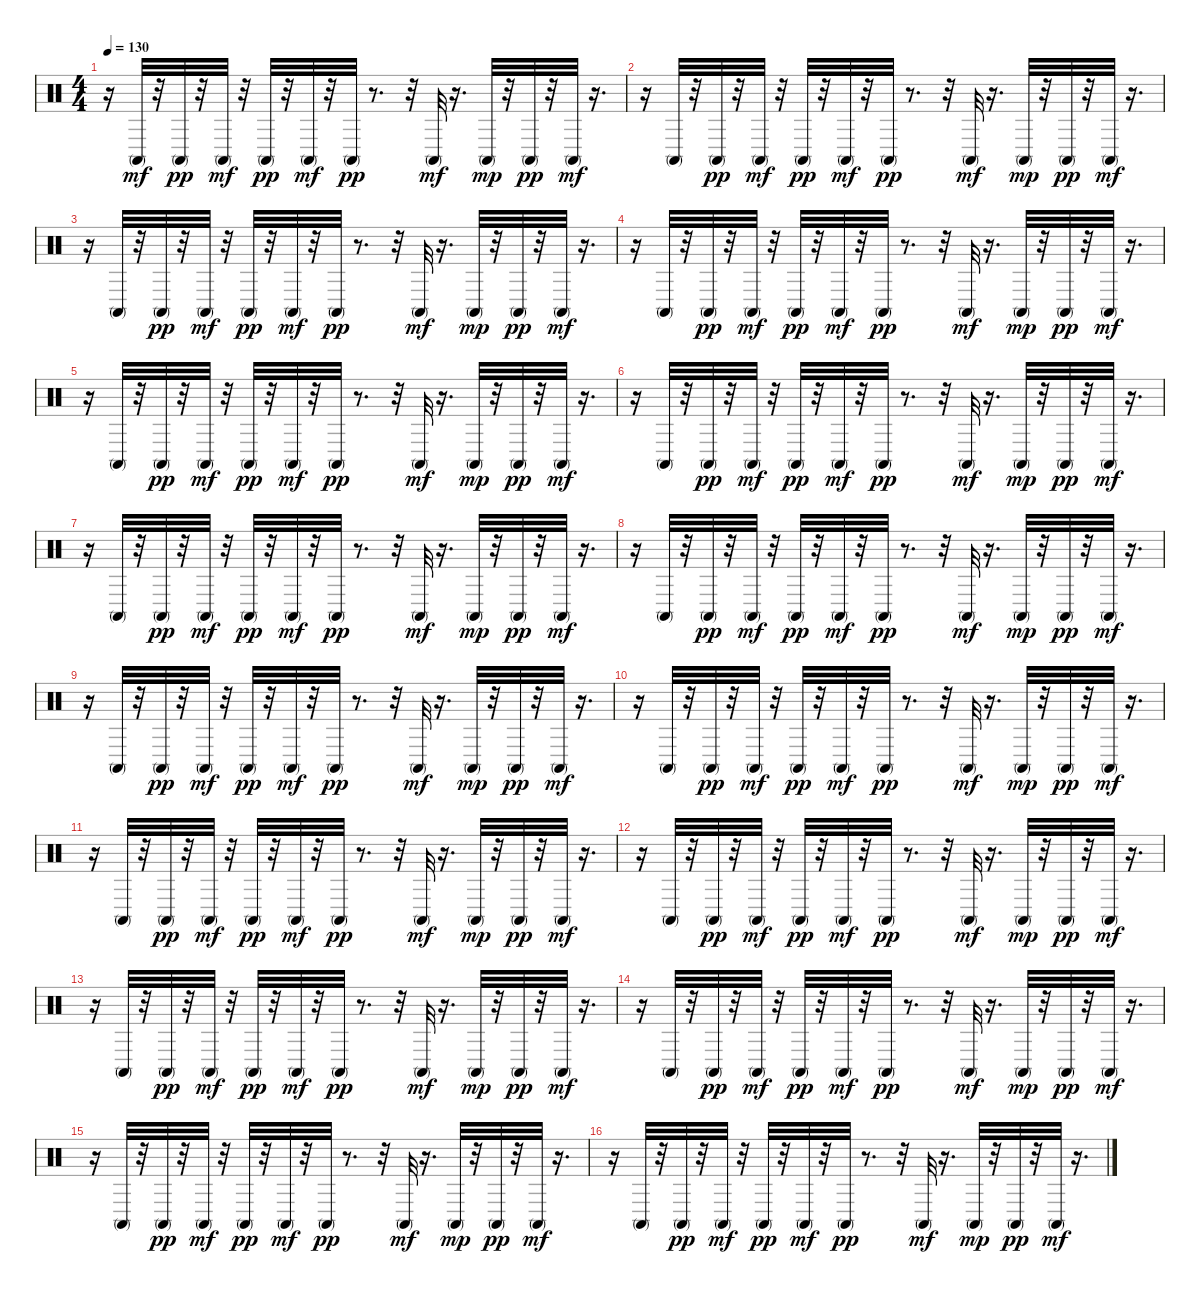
\track "" {instrument percussion}
\staff {score}
\articulation defaults
\ts (4 4)
\tempo 130
\clef neutral
\ks c
r.16{dy mf} "Conga high (mute)".32 r.32 "Conga high (mute)".32{dy pp} r.32 "Conga high (mute)".32{dy mf} r.32 "Conga high (mute)".32{dy pp} r.32 "Conga high (mute)".32{dy mf} r.32 "Conga high (mute)".32{dy pp} r.8{d} r.32 "Conga high (mute)".32{dy mf} r.16{d} "Conga high (mute)".32{dy mp} r.32 "Conga high (mute)".32{dy pp} r.32 "Conga high (mute)".32{dy mf} r.16{d} |
r.16 "Conga high (mute)".32 r.32 "Conga high (mute)".32{dy pp} r.32 "Conga high (mute)".32{dy mf} r.32 "Conga high (mute)".32{dy pp} r.32 "Conga high (mute)".32{dy mf} r.32 "Conga high (mute)".32{dy pp} r.8{d} r.32 "Conga high (mute)".32{dy mf} r.16{d} "Conga high (mute)".32{dy mp} r.32 "Conga high (mute)".32{dy pp} r.32 "Conga high (mute)".32{dy mf} r.16{d} |
r.16 "Conga high (mute)".32 r.32 "Conga high (mute)".32{dy pp} r.32 "Conga high (mute)".32{dy mf} r.32 "Conga high (mute)".32{dy pp} r.32 "Conga high (mute)".32{dy mf} r.32 "Conga high (mute)".32{dy pp} r.8{d} r.32 "Conga high (mute)".32{dy mf} r.16{d} "Conga high (mute)".32{dy mp} r.32 "Conga high (mute)".32{dy pp} r.32 "Conga high (mute)".32{dy mf} r.16{d} |
r.16 "Conga high (mute)".32 r.32 "Conga high (mute)".32{dy pp} r.32 "Conga high (mute)".32{dy mf} r.32 "Conga high (mute)".32{dy pp} r.32 "Conga high (mute)".32{dy mf} r.32 "Conga high (mute)".32{dy pp} r.8{d} r.32 "Conga high (mute)".32{dy mf} r.16{d} "Conga high (mute)".32{dy mp} r.32 "Conga high (mute)".32{dy pp} r.32 "Conga high (mute)".32{dy mf} r.16{d} |
r.16 "Conga high (mute)".32 r.32 "Conga high (mute)".32{dy pp} r.32 "Conga high (mute)".32{dy mf} r.32 "Conga high (mute)".32{dy pp} r.32 "Conga high (mute)".32{dy mf} r.32 "Conga high (mute)".32{dy pp} r.8{d} r.32 "Conga high (mute)".32{dy mf} r.16{d} "Conga high (mute)".32{dy mp} r.32 "Conga high (mute)".32{dy pp} r.32 "Conga high (mute)".32{dy mf} r.16{d} |
r.16 "Conga high (mute)".32 r.32 "Conga high (mute)".32{dy pp} r.32 "Conga high (mute)".32{dy mf} r.32 "Conga high (mute)".32{dy pp} r.32 "Conga high (mute)".32{dy mf} r.32 "Conga high (mute)".32{dy pp} r.8{d} r.32 "Conga high (mute)".32{dy mf} r.16{d} "Conga high (mute)".32{dy mp} r.32 "Conga high (mute)".32{dy pp} r.32 "Conga high (mute)".32{dy mf} r.16{d} |
r.16 "Conga high (mute)".32 r.32 "Conga high (mute)".32{dy pp} r.32 "Conga high (mute)".32{dy mf} r.32 "Conga high (mute)".32{dy pp} r.32 "Conga high (mute)".32{dy mf} r.32 "Conga high (mute)".32{dy pp} r.8{d} r.32 "Conga high (mute)".32{dy mf} r.16{d} "Conga high (mute)".32{dy mp} r.32 "Conga high (mute)".32{dy pp} r.32 "Conga high (mute)".32{dy mf} r.16{d} |
r.16 "Conga high (mute)".32 r.32 "Conga high (mute)".32{dy pp} r.32 "Conga high (mute)".32{dy mf} r.32 "Conga high (mute)".32{dy pp} r.32 "Conga high (mute)".32{dy mf} r.32 "Conga high (mute)".32{dy pp} r.8{d} r.32 "Conga high (mute)".32{dy mf} r.16{d} "Conga high (mute)".32{dy mp} r.32 "Conga high (mute)".32{dy pp} r.32 "Conga high (mute)".32{dy mf} r.16{d} |
r.16 "Conga high (mute)".32 r.32 "Conga high (mute)".32{dy pp} r.32 "Conga high (mute)".32{dy mf} r.32 "Conga high (mute)".32{dy pp} r.32 "Conga high (mute)".32{dy mf} r.32 "Conga high (mute)".32{dy pp} r.8{d} r.32 "Conga high (mute)".32{dy mf} r.16{d} "Conga high (mute)".32{dy mp} r.32 "Conga high (mute)".32{dy pp} r.32 "Conga high (mute)".32{dy mf} r.16{d} |
r.16 "Conga high (mute)".32 r.32 "Conga high (mute)".32{dy pp} r.32 "Conga high (mute)".32{dy mf} r.32 "Conga high (mute)".32{dy pp} r.32 "Conga high (mute)".32{dy mf} r.32 "Conga high (mute)".32{dy pp} r.8{d} r.32 "Conga high (mute)".32{dy mf} r.16{d} "Conga high (mute)".32{dy mp} r.32 "Conga high (mute)".32{dy pp} r.32 "Conga high (mute)".32{dy mf} r.16{d} |
r.16 "Conga high (mute)".32 r.32 "Conga high (mute)".32{dy pp} r.32 "Conga high (mute)".32{dy mf} r.32 "Conga high (mute)".32{dy pp} r.32 "Conga high (mute)".32{dy mf} r.32 "Conga high (mute)".32{dy pp} r.8{d} r.32 "Conga high (mute)".32{dy mf} r.16{d} "Conga high (mute)".32{dy mp} r.32 "Conga high (mute)".32{dy pp} r.32 "Conga high (mute)".32{dy mf} r.16{d} |
r.16 "Conga high (mute)".32 r.32 "Conga high (mute)".32{dy pp} r.32 "Conga high (mute)".32{dy mf} r.32 "Conga high (mute)".32{dy pp} r.32 "Conga high (mute)".32{dy mf} r.32 "Conga high (mute)".32{dy pp} r.8{d} r.32 "Conga high (mute)".32{dy mf} r.16{d} "Conga high (mute)".32{dy mp} r.32 "Conga high (mute)".32{dy pp} r.32 "Conga high (mute)".32{dy mf} r.16{d} |
r.16 "Conga high (mute)".32 r.32 "Conga high (mute)".32{dy pp} r.32 "Conga high (mute)".32{dy mf} r.32 "Conga high (mute)".32{dy pp} r.32 "Conga high (mute)".32{dy mf} r.32 "Conga high (mute)".32{dy pp} r.8{d} r.32 "Conga high (mute)".32{dy mf} r.16{d} "Conga high (mute)".32{dy mp} r.32 "Conga high (mute)".32{dy pp} r.32 "Conga high (mute)".32{dy mf} r.16{d} |
r.16 "Conga high (mute)".32 r.32 "Conga high (mute)".32{dy pp} r.32 "Conga high (mute)".32{dy mf} r.32 "Conga high (mute)".32{dy pp} r.32 "Conga high (mute)".32{dy mf} r.32 "Conga high (mute)".32{dy pp} r.8{d} r.32 "Conga high (mute)".32{dy mf} r.16{d} "Conga high (mute)".32{dy mp} r.32 "Conga high (mute)".32{dy pp} r.32 "Conga high (mute)".32{dy mf} r.16{d} |
r.16 "Conga high (mute)".32 r.32 "Conga high (mute)".32{dy pp} r.32 "Conga high (mute)".32{dy mf} r.32 "Conga high (mute)".32{dy pp} r.32 "Conga high (mute)".32{dy mf} r.32 "Conga high (mute)".32{dy pp} r.8{d} r.32 "Conga high (mute)".32{dy mf} r.16{d} "Conga high (mute)".32{dy mp} r.32 "Conga high (mute)".32{dy pp} r.32 "Conga high (mute)".32{dy mf} r.16{d} |
r.16 "Conga high (mute)".32 r.32 "Conga high (mute)".32{dy pp} r.32 "Conga high (mute)".32{dy mf} r.32 "Conga high (mute)".32{dy pp} r.32 "Conga high (mute)".32{dy mf} r.32 "Conga high (mute)".32{dy pp} r.8{d} r.32 "Conga high (mute)".32{dy mf} r.16{d} "Conga high (mute)".32{dy mp} r.32 "Conga high (mute)".32{dy pp} r.32 "Conga high (mute)".32{dy mf} r.16{d}
